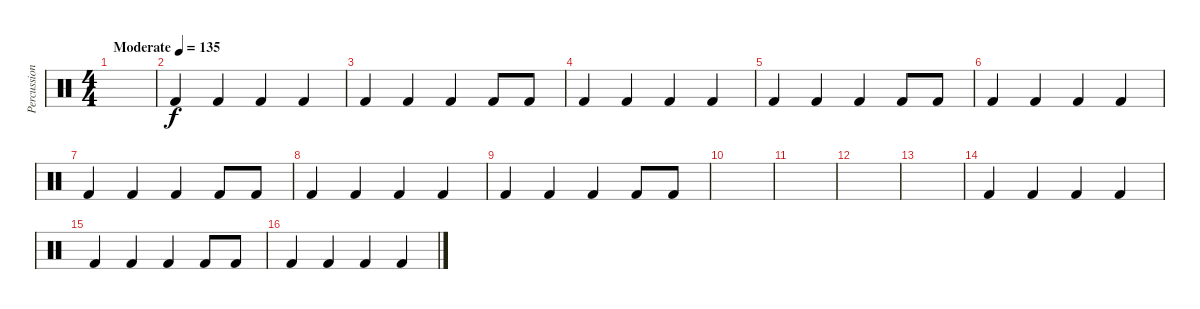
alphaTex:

\track ("Percussion" "Percussion") {instrument percussion}
\staff {score}
\articulation defaults
\ts (4 4)
\tempo (135 "Moderate")
\clef neutral
\ks c
|
"Kick (hit) 2".4 "Kick (hit) 2".4 "Kick (hit) 2".4 "Kick (hit) 2".4 |
"Kick (hit) 2".4 "Kick (hit) 2".4 "Kick (hit) 2".4 "Kick (hit) 2".8 "Kick (hit) 2".8 |
"Kick (hit) 2".4 "Kick (hit) 2".4 "Kick (hit) 2".4 "Kick (hit) 2".4 |
"Kick (hit) 2".4 "Kick (hit) 2".4 "Kick (hit) 2".4 "Kick (hit) 2".8 "Kick (hit) 2".8 |
"Kick (hit) 2".4 "Kick (hit) 2".4 "Kick (hit) 2".4 "Kick (hit) 2".4 |
"Kick (hit) 2".4 "Kick (hit) 2".4 "Kick (hit) 2".4 "Kick (hit) 2".8 "Kick (hit) 2".8 |
"Kick (hit) 2".4 "Kick (hit) 2".4 "Kick (hit) 2".4 "Kick (hit) 2".4 |
"Kick (hit) 2".4 "Kick (hit) 2".4 "Kick (hit) 2".4 "Kick (hit) 2".8 "Kick (hit) 2".8 |
|
|
|
|
"Kick (hit) 2".4 "Kick (hit) 2".4 "Kick (hit) 2".4 "Kick (hit) 2".4 |
"Kick (hit) 2".4 "Kick (hit) 2".4 "Kick (hit) 2".4 "Kick (hit) 2".8 "Kick (hit) 2".8 |
"Kick (hit) 2".4 "Kick (hit) 2".4 "Kick (hit) 2".4 "Kick (hit) 2".4
